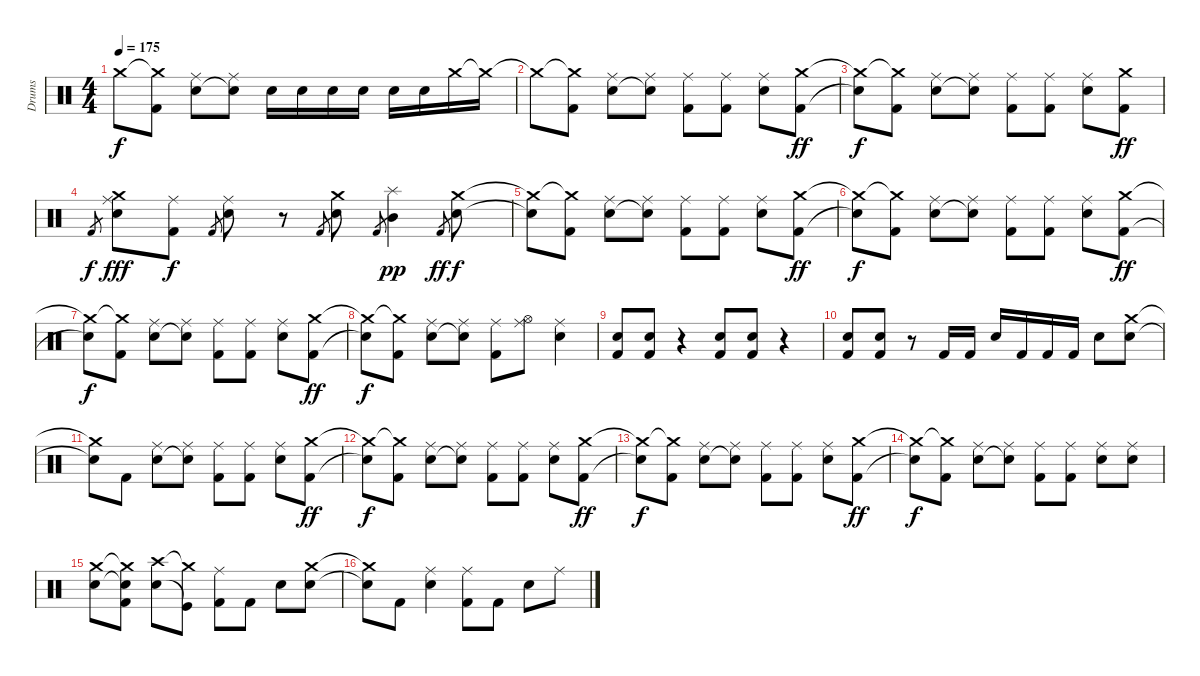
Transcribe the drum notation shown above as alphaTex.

\track ("Drums" "Drums") {instrument percussion}
\staff {score}
\articulation defaults
\ts (4 4)
\tempo 175
\clef neutral
\ks c "Crash medium (hit)"{t}.8{dy f}
("Crash medium (hit)"{t} "Kick (hit) 2").8 ("Ride (middle)" "Snare (hit) 2").8 ("Ride (middle)" "Snare (hit) 2"{t}).8 "Snare (hit) 2".16 "Snare (hit) 2".16 "Snare (hit) 2".16 "Snare (hit) 2".16 "Snare (hit) 2".16 "Snare (hit) 2".16 "Crash medium (hit)".16 "Crash medium (hit)"{t}.16 |
"Crash medium (hit)"{t}.8 ("Crash medium (hit)"{t} "Kick (hit) 2").8 ("Ride (middle)" "Snare (hit) 2").8 ("Ride (middle)" "Snare (hit) 2"{t}).8 ("Ride (middle)" "Kick (hit) 2").8 ("Ride (middle)" "Kick (hit) 2").8 ("Ride (middle)" "Snare (hit) 2").8 ("Crash medium (hit)" "Kick (hit) 2").8{dy ff} |
("Crash medium (hit)"{t} "Snare (hit) 2"{t}).8{dy f} ("Crash medium (hit)"{t} "Kick (hit) 2").8 ("Ride (middle)" "Snare (hit) 2").8 ("Ride (middle)" "Snare (hit) 2"{t}).8 ("Ride (middle)" "Kick (hit) 2").8 ("Ride (middle)" "Kick (hit) 2").8 ("Ride (middle)" "Snare (hit) 2").8 ("Crash medium (hit)" "Kick (hit) 2").8{dy ff} |
"Kick (hit) 2".8{gr dy f} ("Crash medium (hit)" "Ride (middle)" "Snare (hit) 2").8{dy fff} ("Ride (middle)" "Kick (hit) 2").8{dy f} "Kick (hit) 2".8{gr} ("Ride (middle)" "Snare (hit) 2").8 r.8 "Kick (hit) 2".8{gr} ("Crash medium (hit)" "Snare (hit) 2").8 "Kick (hit) 2".8{gr} ("Splash (hit)" "Mid Tom (hit)").4{dy pp} "Kick (hit) 2".8{gr dy ff} ("Crash medium (hit)" "Snare (hit) 2").8{dy f} |
("Crash medium (hit)"{t} "Snare (hit) 2"{t}).8 ("Crash medium (hit)"{t} "Kick (hit) 2").8 ("Ride (middle)" "Snare (hit) 2").8 ("Ride (middle)" "Snare (hit) 2"{t}).8 ("Ride (middle)" "Kick (hit) 2").8 ("Ride (middle)" "Kick (hit) 2").8 ("Ride (middle)" "Snare (hit) 2").8 ("Crash medium (hit)" "Kick (hit) 2").8{dy ff} |
("Crash medium (hit)"{t} "Snare (hit) 2"{t}).8{dy f} ("Crash medium (hit)"{t} "Kick (hit) 2").8 ("Ride (middle)" "Snare (hit) 2").8 ("Ride (middle)" "Snare (hit) 2"{t}).8 ("Ride (middle)" "Kick (hit) 2").8 ("Ride (middle)" "Kick (hit) 2").8 ("Ride (middle)" "Snare (hit) 2").8 ("Crash medium (hit)" "Kick (hit) 2").8{dy ff} |
("Crash medium (hit)"{t} "Snare (hit) 2"{t}).8{dy f} ("Crash medium (hit)"{t} "Kick (hit) 2").8 ("Ride (middle)" "Snare (hit) 2").8 ("Ride (middle)" "Snare (hit) 2"{t}).8 ("Ride (middle)" "Kick (hit) 2").8 ("Ride (middle)" "Kick (hit) 2").8 ("Ride (middle)" "Snare (hit) 2").8 ("Crash medium (hit)" "Kick (hit) 2").8{dy ff} |
("Crash medium (hit)"{t} "Snare (hit) 2"{t}).8{dy f} ("Crash medium (hit)"{t} "Kick (hit) 2").8 ("Ride (middle)" "Snare (hit) 2").8 ("Ride (middle)" "Snare (hit) 2"{t}).8 ("Ride (middle)" "Kick (hit) 2").8 ("Ride (middle)" "Hi-Hat (open)").8 ("Ride (middle)" "Snare (hit) 2").4 |
("Snare (hit) 2" "Kick (hit) 2").8 ("Snare (hit) 2" "Kick (hit) 2").8 r.4 ("Snare (hit) 2" "Kick (hit) 2").8 ("Snare (hit) 2" "Kick (hit) 2").8 r.4 |
("Snare (hit) 2" "Kick (hit) 2").8 ("Snare (hit) 2" "Kick (hit) 2").8 r.8 "Kick (hit) 2".16 "Kick (hit) 2".16 "Snare (hit) 2".16 "Kick (hit) 2".16 "Kick (hit) 2".16 "Kick (hit) 2".16 "Snare (hit) 2".8 ("Crash medium (hit)" "Snare (hit) 2").8 |
("Crash medium (hit)"{t} "Snare (hit) 2"{t}).8 "Kick (hit) 2".8 ("Ride (middle)" "Snare (hit) 2").8 ("Ride (middle)" "Snare (hit) 2"{t}).8 ("Ride (middle)" "Kick (hit) 2").8 ("Ride (middle)" "Kick (hit) 2").8 ("Ride (middle)" "Snare (hit) 2").8 ("Crash medium (hit)" "Kick (hit) 2").8{dy ff} |
("Crash medium (hit)"{t} "Snare (hit) 2"{t}).8{dy f} ("Crash medium (hit)"{t} "Kick (hit) 2").8 ("Ride (middle)" "Snare (hit) 2").8 ("Ride (middle)" "Snare (hit) 2"{t}).8 ("Ride (middle)" "Kick (hit) 2").8 ("Ride (middle)" "Kick (hit) 2").8 ("Ride (middle)" "Snare (hit) 2").8 ("Crash medium (hit)" "Kick (hit) 2").8{dy ff} |
("Crash medium (hit)"{t} "Snare (hit) 2"{t}).8{dy f} ("Crash medium (hit)"{t} "Kick (hit) 2").8 ("Ride (middle)" "Snare (hit) 2").8 ("Ride (middle)" "Snare (hit) 2"{t}).8 ("Ride (middle)" "Kick (hit) 2").8 ("Ride (middle)" "Kick (hit) 2").8 ("Ride (middle)" "Snare (hit) 2").8 ("Crash medium (hit)" "Kick (hit) 2").8{dy ff} |
("Crash medium (hit)"{t} "Snare (hit) 2"{t}).8{dy f} ("Crash medium (hit)"{t} "Kick (hit) 2").8 ("Ride (middle)" "Snare (hit) 2").8 ("Ride (middle)" "Snare (hit) 2"{t}).8 ("Ride (middle)" "Kick (hit) 2").8 ("Ride (middle)" "Kick (hit) 2").8 ("Ride (middle)" "Snare (hit) 2").8 ("Ride (middle)" "Snare (hit) 2").8 |
("Crash medium (hit)" "Snare (hit) 2").8 ("Crash medium (hit)"{t} "Snare (hit)"{t} "Kick (hit) 2").8 ("Crash high (hit)" "Snare (hit) 2").8 ("Crash medium (hit)"{t} "Kick (hit)"{t}).8 ("Ride (middle)" "Kick (hit) 2").8 "Kick (hit) 2".8 "Snare (hit) 2".8 ("Crash medium (hit)" "Snare (hit) 2").8 |
("Crash medium (hit)"{t} "Electric Snare (hit)"{t}).8 "Kick (hit) 2".8 ("Ride (middle)" "Snare (hit) 2").4 ("Ride (middle)" "Kick (hit) 2").8 "Kick (hit) 2".8 "Snare (hit) 2".8 "Ride (middle)".8
